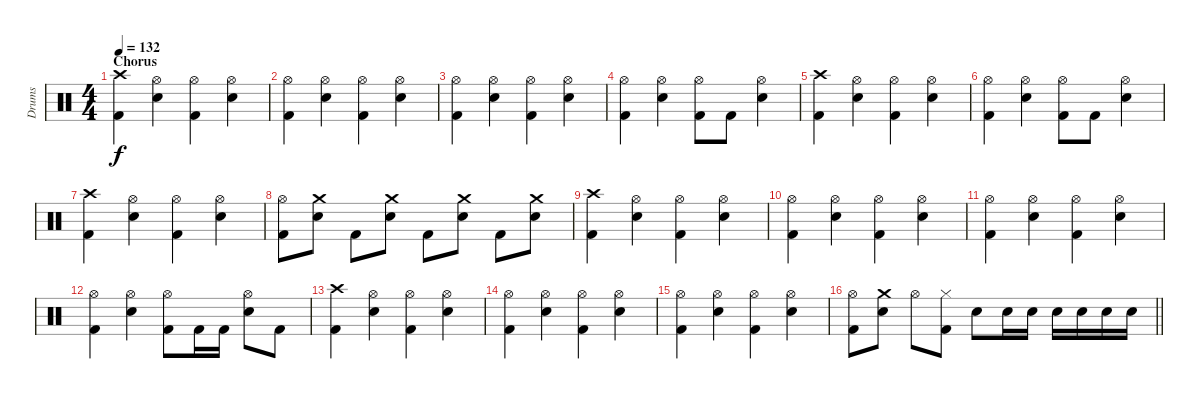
\track ("Drums" "Drums") {instrument percussion}
\staff {score}
\articulation defaults
\ts (4 4)
\section ("" "Chorus")
\tempo 132
\clef neutral
\ks c
("Crash high (hit)" "Kick (hit) 2").4{dy f} ("Hi-Hat (open)" "Snare (hit) 2").4 ("Hi-Hat (open)" "Kick (hit) 2").4 ("Hi-Hat (open)" "Snare (hit) 2").4 |
("Hi-Hat (open)" "Kick (hit) 2").4 ("Hi-Hat (open)" "Snare (hit) 2").4 ("Hi-Hat (open)" "Kick (hit) 2").4 ("Hi-Hat (open)" "Snare (hit) 2").4 |
("Hi-Hat (open)" "Kick (hit) 2").4 ("Hi-Hat (open)" "Snare (hit) 2").4 ("Hi-Hat (open)" "Kick (hit) 2").4 ("Hi-Hat (open)" "Snare (hit) 2").4 |
("Hi-Hat (open)" "Kick (hit) 2").4 ("Hi-Hat (open)" "Snare (hit) 2").4 ("Hi-Hat (open)" "Kick (hit) 2").8 "Kick (hit) 2".8 ("Hi-Hat (open)" "Snare (hit) 2").4 |
("Crash high (hit)" "Kick (hit) 2").4 ("Hi-Hat (open)" "Snare (hit) 2").4 ("Hi-Hat (open)" "Kick (hit) 2").4 ("Hi-Hat (open)" "Snare (hit) 2").4 |
("Hi-Hat (open)" "Kick (hit) 2").4 ("Hi-Hat (open)" "Snare (hit) 2").4 ("Hi-Hat (open)" "Kick (hit) 2").8 "Kick (hit) 2".8 ("Hi-Hat (open)" "Snare (hit) 2").4 |
("Crash high (hit)" "Kick (hit) 2").4 ("Hi-Hat (open)" "Snare (hit) 2").4 ("Hi-Hat (open)" "Kick (hit) 2").4 ("Hi-Hat (open)" "Snare (hit) 2").4 |
("Hi-Hat (open)" "Kick (hit) 2").8 ("Crash medium (hit)" "Snare (hit) 2").8 "Kick (hit) 2".8 ("Crash medium (hit)" "Snare (hit) 2").8 "Kick (hit) 2".8 ("Crash medium (hit)" "Snare (hit) 2").8 "Kick (hit) 2".8 ("Crash medium (hit)" "Snare (hit) 2").8 |
("Crash high (hit)" "Kick (hit) 2").4 ("Hi-Hat (open)" "Snare (hit) 2").4 ("Hi-Hat (open)" "Kick (hit) 2").4 ("Hi-Hat (open)" "Snare (hit) 2").4 |
("Hi-Hat (open)" "Kick (hit) 2").4 ("Hi-Hat (open)" "Snare (hit) 2").4 ("Hi-Hat (open)" "Kick (hit) 2").4 ("Hi-Hat (open)" "Snare (hit) 2").4 |
("Hi-Hat (open)" "Kick (hit) 2").4 ("Hi-Hat (open)" "Snare (hit) 2").4 ("Hi-Hat (open)" "Kick (hit) 2").4 ("Hi-Hat (open)" "Snare (hit) 2").4 |
("Hi-Hat (open)" "Kick (hit) 2").4 ("Hi-Hat (open)" "Snare (hit) 2").4 ("Hi-Hat (open)" "Kick (hit) 2").8 "Kick (hit) 2".16 "Kick (hit) 2".16 ("Hi-Hat (open)" "Snare (hit) 2").8 "Kick (hit) 2".8 |
("Crash high (hit)" "Kick (hit) 2").4 ("Hi-Hat (open)" "Snare (hit) 2").4 ("Hi-Hat (open)" "Kick (hit) 2").4 ("Hi-Hat (open)" "Snare (hit) 2").4 |
("Hi-Hat (open)" "Kick (hit) 2").4 ("Hi-Hat (open)" "Snare (hit) 2").4 ("Hi-Hat (open)" "Kick (hit) 2").4 ("Hi-Hat (open)" "Snare (hit) 2").4 |
("Hi-Hat (open)" "Kick (hit) 2").4 ("Hi-Hat (open)" "Snare (hit) 2").4 ("Hi-Hat (open)" "Kick (hit) 2").4 ("Hi-Hat (open)" "Snare (hit) 2").4 |
\barLineRight lightlight
("Hi-Hat (open)" "Kick (hit) 2").8 ("Crash medium (hit)" "Snare (hit) 2").8 "Hi-Hat (open)".8 ("Hi-Hat (closed)" "Kick (hit) 2").8 "Snare (hit) 2".8 "Snare (hit) 2".16 "Snare (hit) 2".16 "Snare (hit) 2".16 "Snare (hit) 2".16 "Snare (hit) 2".16 "Snare (hit) 2".16
